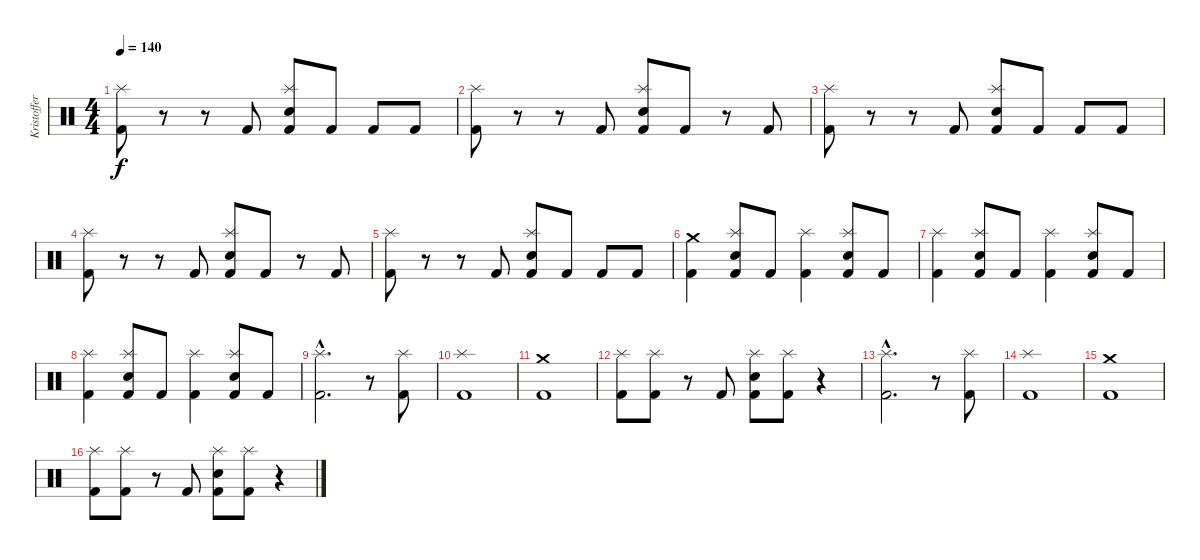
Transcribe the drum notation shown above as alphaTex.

\track ("Kristoffer (Drums)" "Kristoffer") {instrument percussion}
\staff {score}
\articulation defaults
\ts (4 4)
\tempo 140
\clef neutral
\ks c
("Kick (hit) 2" "Splash (hit)").8{dy f} r.8 r.8 "Kick (hit) 2".8 ("Kick (hit) 2" "Electric Snare (hit)" "Splash (hit)").8 "Kick (hit) 2".8 "Kick (hit) 2".8 "Kick (hit) 2".8 |
("Kick (hit) 2" "Splash (hit)").8 r.8 r.8 "Kick (hit) 2".8 ("Kick (hit) 2" "Electric Snare (hit)" "Splash (hit)").8 "Kick (hit) 2".8 r.8 "Kick (hit) 2".8 |
("Kick (hit) 2" "Splash (hit)").8 r.8 r.8 "Kick (hit) 2".8 ("Kick (hit) 2" "Electric Snare (hit)" "Splash (hit)").8 "Kick (hit) 2".8 "Kick (hit) 2".8 "Kick (hit) 2".8 |
("Kick (hit) 2" "Splash (hit)").8 r.8 r.8 "Kick (hit) 2".8 ("Kick (hit) 2" "Electric Snare (hit)" "Splash (hit)").8 "Kick (hit) 2".8 r.8 "Kick (hit) 2".8 |
("Kick (hit) 2" "Splash (hit)").8 r.8 r.8 "Kick (hit) 2".8 ("Kick (hit) 2" "Electric Snare (hit)" "Splash (hit)").8 "Kick (hit) 2".8 "Kick (hit) 2".8 "Kick (hit) 2".8 |
("Kick (hit) 2" "Crash medium (hit)").4 ("Kick (hit) 2" "Electric Snare (hit)" "Splash (hit)").8 "Kick (hit) 2".8 ("Kick (hit) 2" "Splash (hit)").4 ("Kick (hit) 2" "Electric Snare (hit)" "Splash (hit)").8 "Kick (hit) 2".8 |
("Kick (hit) 2" "Splash (hit)").4 ("Kick (hit) 2" "Electric Snare (hit)" "Splash (hit)").8 "Kick (hit) 2".8 ("Kick (hit) 2" "Splash (hit)").4 ("Kick (hit) 2" "Electric Snare (hit)" "Splash (hit)").8 "Kick (hit) 2".8 |
("Kick (hit) 2" "Splash (hit)").4 ("Kick (hit) 2" "Electric Snare (hit)" "Splash (hit)").8 "Kick (hit) 2".8 ("Kick (hit) 2" "Splash (hit)").4 ("Kick (hit) 2" "Electric Snare (hit)" "Splash (hit)").8 "Kick (hit) 2".8 |
("Kick (hit) 2"{hac} "Splash (hit)"{hac}).2{d} r.8 ("Kick (hit) 2" "Splash (hit)").8 |
("Kick (hit) 2" "Splash (hit)").1 |
("Kick (hit) 2" "Crash medium (hit)").1 |
("Kick (hit) 2" "Splash (hit)").8 ("Kick (hit) 2" "Splash (hit)").8 r.8 "Kick (hit) 2".8 ("Kick (hit) 2" "Splash (hit)" "Electric Snare (hit)").8 ("Kick (hit) 2" "Splash (hit)").8 r.4 |
("Kick (hit) 2"{hac} "Splash (hit)"{hac}).2{d} r.8 ("Kick (hit) 2" "Splash (hit)").8 |
("Kick (hit) 2" "Splash (hit)").1 |
("Kick (hit) 2" "Crash medium (hit)").1 |
("Kick (hit) 2" "Splash (hit)").8 ("Kick (hit) 2" "Splash (hit)").8 r.8 "Kick (hit) 2".8 ("Kick (hit) 2" "Splash (hit)" "Electric Snare (hit)").8 ("Kick (hit) 2" "Splash (hit)").8 r.4
